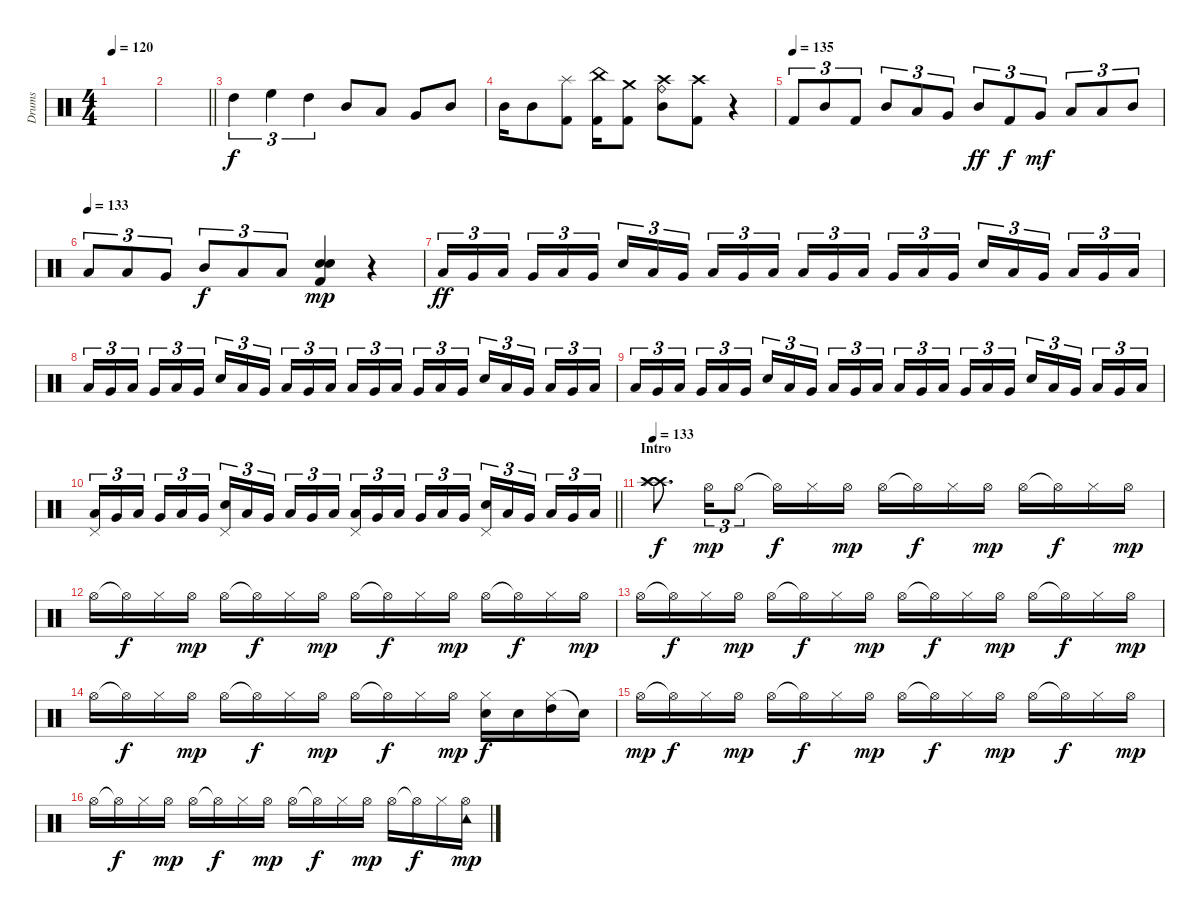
\track ("Drums" "Drums") {instrument percussion}
\staff {score}
\articulation defaults
\ts (4 4)
\tempo 120
\clef neutral
\ks c
|
\barLineRight lightlight
|
\section ("" "")
"High Tom (hit)".4{tu (3 2)} "High Floor Tom (hit)".4{tu (3 2)} "High Tom (hit)".4{tu (3 2)} "Mid Tom (hit)".8 "Low Tom (hit)".8 "Very Low Tom (hit)".8 "Mid Tom (hit)".8 |
"Mid Tom (hit)".16 "Mid Tom (hit)".8 ("Kick (hit) 2" "Splash (hit)").8 ("Kick (hit) 2" "China (hit)").16 ("Kick (hit) 2" "Crash medium (hit)").8 ("Mid Tom (hit)" "Ride (bell)" "Crash high (hit)").8 ("Crash high (hit)" "Kick (hit) 2").8 r.4 |
\tempo (135)
"Kick (hit) 2".8{tu (3 2)} "Mid Tom (hit)".8{tu (3 2)} "Kick (hit) 2".8{tu (3 2)} "Mid Tom (hit)".8{tu (3 2)} "Low Tom (hit)".8{tu (3 2)} "Very Low Tom (hit)".8{tu (3 2)} "Mid Tom (hit)".8{tu (3 2) dy ff} "Kick (hit) 2".8{tu (3 2) dy f} "Very Low Tom (hit)".8{tu (3 2) dy mf} "Low Tom (hit)".8{tu (3 2)} "Low Tom (hit)".8{tu (3 2)} "Mid Tom (hit)".8{tu (3 2)} |
\tempo (133)
"Low Tom (hit)".8{tu (3 2)} "Low Tom (hit)".8{tu (3 2)} "Very Low Tom (hit)".8{tu (3 2)} "Mid Tom (hit)".8{tu (3 2) dy f} "Low Tom (hit)".8{tu (3 2)} "Low Floor Tom (hit)".8{tu (3 2)} ("Electric Snare (hit)" "Snare (hit) 2" "Kick (hit) 2").4{dy mp} r.4 |
"Low Tom (hit)".16{tu (3 2) dy ff} "Very Low Tom (hit)".16{tu (3 2)} "Low Tom (hit)".16{tu (3 2) beam splitsecondary} "Very Low Tom (hit)".16{tu (3 2)} "Low Tom (hit)".16{tu (3 2)} "Very Low Tom (hit)".16{tu (3 2)} "Snare (hit) 2".16{tu (3 2)} "Low Tom (hit)".16{tu (3 2)} "Very Low Tom (hit)".16{tu (3 2) beam splitsecondary} "Low Tom (hit)".16{tu (3 2)} "Very Low Tom (hit)".16{tu (3 2)} "Low Tom (hit)".16{tu (3 2)} "Low Tom (hit)".16{tu (3 2)} "Very Low Tom (hit)".16{tu (3 2)} "Low Tom (hit)".16{tu (3 2) beam splitsecondary} "Very Low Tom (hit)".16{tu (3 2)} "Low Tom (hit)".16{tu (3 2)} "Very Low Tom (hit)".16{tu (3 2)} "Snare (hit) 2".16{tu (3 2)} "Low Tom (hit)".16{tu (3 2)} "Very Low Tom (hit)".16{tu (3 2) beam splitsecondary} "Low Tom (hit)".16{tu (3 2)} "Very Low Tom (hit)".16{tu (3 2)} "Low Tom (hit)".16{tu (3 2)} |
"Low Tom (hit)".16{tu (3 2)} "Very Low Tom (hit)".16{tu (3 2)} "Low Tom (hit)".16{tu (3 2) beam splitsecondary} "Very Low Tom (hit)".16{tu (3 2)} "Low Tom (hit)".16{tu (3 2)} "Very Low Tom (hit)".16{tu (3 2)} "Snare (hit) 2".16{tu (3 2)} "Low Tom (hit)".16{tu (3 2)} "Very Low Tom (hit)".16{tu (3 2) beam splitsecondary} "Low Tom (hit)".16{tu (3 2)} "Very Low Tom (hit)".16{tu (3 2)} "Low Tom (hit)".16{tu (3 2)} "Low Tom (hit)".16{tu (3 2)} "Very Low Tom (hit)".16{tu (3 2)} "Low Tom (hit)".16{tu (3 2) beam splitsecondary} "Very Low Tom (hit)".16{tu (3 2)} "Low Tom (hit)".16{tu (3 2)} "Very Low Tom (hit)".16{tu (3 2)} "Snare (hit) 2".16{tu (3 2)} "Low Tom (hit)".16{tu (3 2)} "Very Low Tom (hit)".16{tu (3 2) beam splitsecondary} "Low Tom (hit)".16{tu (3 2)} "Very Low Tom (hit)".16{tu (3 2)} "Low Tom (hit)".16{tu (3 2)} |
"Low Tom (hit)".16{tu (3 2)} "Very Low Tom (hit)".16{tu (3 2)} "Low Tom (hit)".16{tu (3 2) beam splitsecondary} "Very Low Tom (hit)".16{tu (3 2)} "Low Tom (hit)".16{tu (3 2)} "Very Low Tom (hit)".16{tu (3 2)} "Snare (hit) 2".16{tu (3 2)} "Low Tom (hit)".16{tu (3 2)} "Very Low Tom (hit)".16{tu (3 2) beam splitsecondary} "Low Tom (hit)".16{tu (3 2)} "Very Low Tom (hit)".16{tu (3 2)} "Low Tom (hit)".16{tu (3 2)} "Low Tom (hit)".16{tu (3 2)} "Very Low Tom (hit)".16{tu (3 2)} "Low Tom (hit)".16{tu (3 2) beam splitsecondary} "Very Low Tom (hit)".16{tu (3 2)} "Low Tom (hit)".16{tu (3 2)} "Very Low Tom (hit)".16{tu (3 2)} "Snare (hit) 2".16{tu (3 2)} "Low Tom (hit)".16{tu (3 2)} "Very Low Tom (hit)".16{tu (3 2) beam splitsecondary} "Low Tom (hit)".16{tu (3 2)} "Very Low Tom (hit)".16{tu (3 2)} "Low Tom (hit)".16{tu (3 2)} |
\barLineRight lightlight
("Pedal Hi-Hat (hit)" "Low Tom (hit)").16{tu (3 2)} "Very Low Tom (hit)".16{tu (3 2)} "Low Tom (hit)".16{tu (3 2) beam splitsecondary} "Very Low Tom (hit)".16{tu (3 2)} "Low Tom (hit)".16{tu (3 2)} "Very Low Tom (hit)".16{tu (3 2)} ("Pedal Hi-Hat (hit)" "Snare (hit) 2").16{tu (3 2)} "Low Tom (hit)".16{tu (3 2)} "Very Low Tom (hit)".16{tu (3 2) beam splitsecondary} "Low Tom (hit)".16{tu (3 2)} "Very Low Tom (hit)".16{tu (3 2)} "Low Tom (hit)".16{tu (3 2)} ("Pedal Hi-Hat (hit)" "Low Tom (hit)").16{tu (3 2)} "Very Low Tom (hit)".16{tu (3 2)} "Low Tom (hit)".16{tu (3 2) beam splitsecondary} "Very Low Tom (hit)".16{tu (3 2)} "Low Tom (hit)".16{tu (3 2)} "Very Low Tom (hit)".16{tu (3 2)} ("Pedal Hi-Hat (hit)" "Snare (hit) 2").16{tu (3 2)} "Low Tom (hit)".16{tu (3 2)} "Very Low Tom (hit)".16{tu (3 2) beam splitsecondary} "Low Tom (hit)".16{tu (3 2)} "Very Low Tom (hit)".16{tu (3 2)} "Low Tom (hit)".16{tu (3 2)} |
\section ("" "Intro")
\tempo 133
("Crash high (hit)" "Splash (hit)" "Crash high (hit)").8{d dy f} "Hi-Hat (open)".16{tu (3 2) dy mp} "Hi-Hat (open)".8{tu (3 2)} "Hi-Hat (open)"{t}.16{dy f} "Hi-Hat (closed)".16 "Hi-Hat (open)".16{dy mp} "Hi-Hat (open)".16 "Hi-Hat (open)"{t}.16{dy f} "Hi-Hat (closed)".16 "Hi-Hat (open)".16{dy mp} "Hi-Hat (open)".16 "Hi-Hat (open)"{t}.16{dy f} "Hi-Hat (closed)".16 "Hi-Hat (open)".16{dy mp} |
"Hi-Hat (open)".16 "Hi-Hat (open)"{t}.16{dy f} "Hi-Hat (closed)".16 "Hi-Hat (open)".16{dy mp} "Hi-Hat (open)".16 "Hi-Hat (open)"{t}.16{dy f} "Hi-Hat (closed)".16 "Hi-Hat (open)".16{dy mp} "Hi-Hat (open)".16 "Hi-Hat (open)"{t}.16{dy f} "Hi-Hat (closed)".16 "Hi-Hat (open)".16{dy mp} "Hi-Hat (open)".16 "Hi-Hat (open)"{t}.16{dy f} "Hi-Hat (closed)".16 "Hi-Hat (open)".16{dy mp} |
"Hi-Hat (open)".16 "Hi-Hat (open)"{t}.16{dy f} "Hi-Hat (closed)".16 "Hi-Hat (open)".16{dy mp} "Hi-Hat (open)".16 "Hi-Hat (open)"{t}.16{dy f} "Hi-Hat (closed)".16 "Hi-Hat (open)".16{dy mp} "Hi-Hat (open)".16 "Hi-Hat (open)"{t}.16{dy f} "Hi-Hat (closed)".16 "Hi-Hat (open)".16{dy mp} "Hi-Hat (open)".16 "Hi-Hat (open)"{t}.16{dy f} "Hi-Hat (closed)".16 "Hi-Hat (open)".16{dy mp} |
"Hi-Hat (open)".16 "Hi-Hat (open)"{t}.16{dy f} "Hi-Hat (closed)".16 "Hi-Hat (open)".16{dy mp} "Hi-Hat (open)".16 "Hi-Hat (open)"{t}.16{dy f} "Hi-Hat (closed)".16 "Hi-Hat (open)".16{dy mp} "Hi-Hat (open)".16 "Hi-Hat (open)"{t}.16{dy f} "Hi-Hat (closed)".16 "Hi-Hat (open)".16{dy mp} ("Hi-Hat (closed)" "Snare (hit) 2").16{dy f} "Snare (hit) 2".16 ("Hi-Hat (closed)" "High Tom (hit)").16 "Snare (hit)"{t}.16 |
"Hi-Hat (open)".16{dy mp} "Hi-Hat (open)"{t}.16{dy f} "Hi-Hat (closed)".16 "Hi-Hat (open)".16{dy mp} "Hi-Hat (open)".16 "Hi-Hat (open)"{t}.16{dy f} "Hi-Hat (closed)".16 "Hi-Hat (open)".16{dy mp} "Hi-Hat (open)".16 "Hi-Hat (open)"{t}.16{dy f} "Hi-Hat (closed)".16 "Hi-Hat (open)".16{dy mp} "Hi-Hat (open)".16 "Hi-Hat (open)"{t}.16{dy f} "Hi-Hat (closed)".16 "Hi-Hat (open)".16{dy mp} |
"Hi-Hat (open)".16 "Hi-Hat (open)"{t}.16{dy f} "Hi-Hat (closed)".16 "Hi-Hat (open)".16{dy mp} "Hi-Hat (open)".16 "Hi-Hat (open)"{t}.16{dy f} "Hi-Hat (closed)".16 "Hi-Hat (open)".16{dy mp} "Hi-Hat (open)".16 "Hi-Hat (open)"{t}.16{dy f} "Hi-Hat (closed)".16 "Hi-Hat (open)".16{dy mp} "Hi-Hat (open)".16 "Hi-Hat (open)"{t}.16{dy f} "Hi-Hat (closed)".16 ("Hi-Hat (open)" "Tambourine (hit)").16{dy mp}
